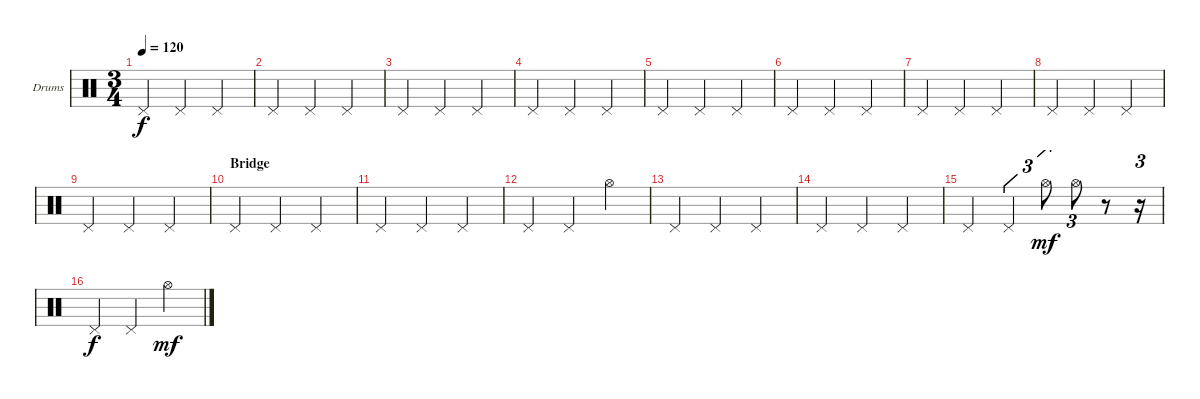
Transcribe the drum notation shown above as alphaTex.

\bracketExtendMode groupsimilarinstruments
\firstSystemTrackNameOrientation horizontal
\otherSystemsTrackNameOrientation horizontal
\track ("Drumkit" "Drums") {instrument percussion}
\staff {score}
\articulation defaults
\ts (3 4)
\tempo 120
\clef neutral
\ks c "Pedal Hi-Hat (hit)".4{dy f} "Pedal Hi-Hat (hit)".4 "Pedal Hi-Hat (hit)".4
|
"Pedal Hi-Hat (hit)".4 "Pedal Hi-Hat (hit)".4 "Pedal Hi-Hat (hit)".4 |
"Pedal Hi-Hat (hit)".4 "Pedal Hi-Hat (hit)".4 "Pedal Hi-Hat (hit)".4 |
"Pedal Hi-Hat (hit)".4 "Pedal Hi-Hat (hit)".4 "Pedal Hi-Hat (hit)".4 |
"Pedal Hi-Hat (hit)".4 "Pedal Hi-Hat (hit)".4 "Pedal Hi-Hat (hit)".4 |
"Pedal Hi-Hat (hit)".4 "Pedal Hi-Hat (hit)".4 "Pedal Hi-Hat (hit)".4 |
"Pedal Hi-Hat (hit)".4 "Pedal Hi-Hat (hit)".4 "Pedal Hi-Hat (hit)".4 |
"Pedal Hi-Hat (hit)".4 "Pedal Hi-Hat (hit)".4 "Pedal Hi-Hat (hit)".4 |
"Pedal Hi-Hat (hit)".4 "Pedal Hi-Hat (hit)".4 "Pedal Hi-Hat (hit)".4 |
\section ("" "Bridge")
"Pedal Hi-Hat (hit)".4 "Pedal Hi-Hat (hit)".4 "Pedal Hi-Hat (hit)".4 |
"Pedal Hi-Hat (hit)".4 "Pedal Hi-Hat (hit)".4 "Pedal Hi-Hat (hit)".4 |
"Pedal Hi-Hat (hit)".4 "Pedal Hi-Hat (hit)".4 "Hi-Hat (open)".4 |
"Pedal Hi-Hat (hit)".4 "Pedal Hi-Hat (hit)".4 "Pedal Hi-Hat (hit)".4 |
"Pedal Hi-Hat (hit)".4 "Pedal Hi-Hat (hit)".4 "Pedal Hi-Hat (hit)".4 |
"Pedal Hi-Hat (hit)".4 "Pedal Hi-Hat (hit)".4{tu (3 2)} "Hi-Hat (open)".8{tu (3 2) dy mf} "Hi-Hat (open)".8{tu (3 2)} r.8 r.16{tu (3 2)} |
"Pedal Hi-Hat (hit)".4{dy f} "Pedal Hi-Hat (hit)".4 "Hi-Hat (open)".4{dy mf}
